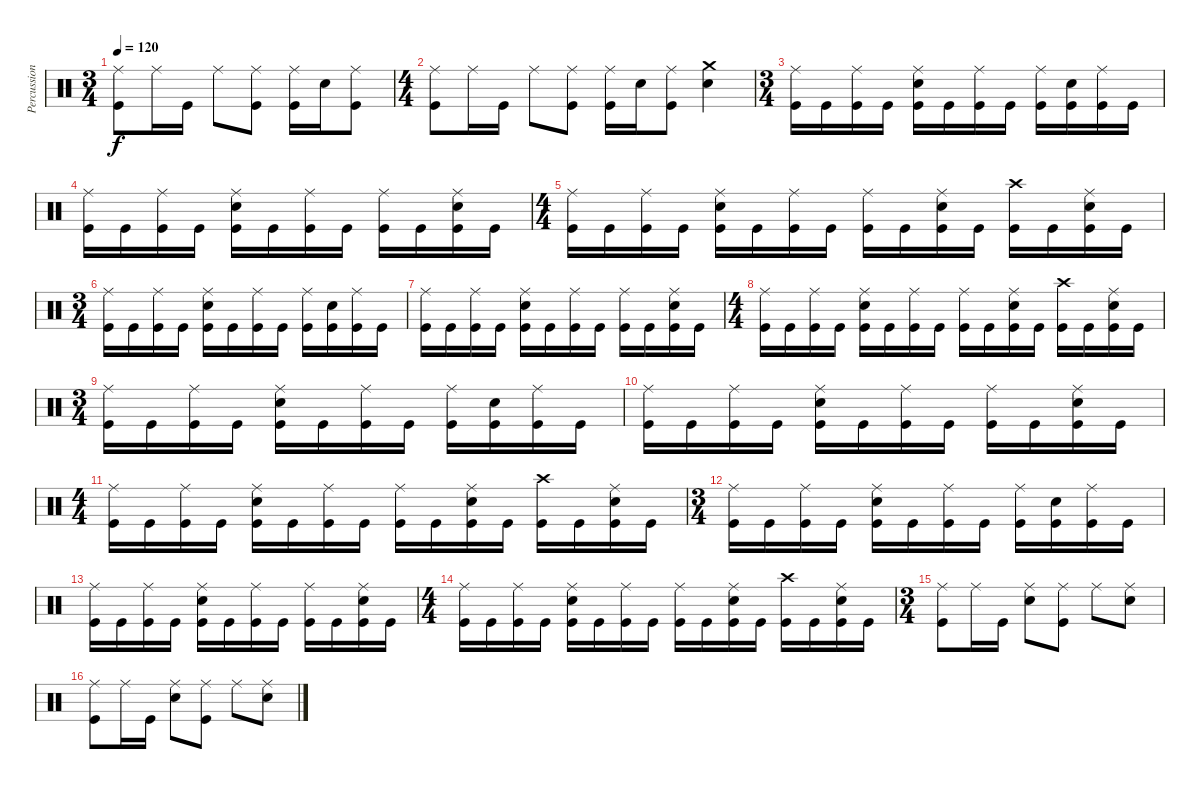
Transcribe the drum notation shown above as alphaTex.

\track ("Percussion" "Percussion") {instrument percussion}
\staff {score}
\articulation defaults
\ts (3 4)
\tempo 120
\clef neutral
\ks c
("Ride (middle)" "Kick (hit)").8{dy f} "Ride (middle)".16 "Kick (hit)".16 "Ride (middle)".8 ("Ride (middle)" "Kick (hit)").8 ("Ride (middle)" "Kick (hit)").16 "Snare (hit) 2".16 ("Ride (middle)" "Kick (hit)").8 |
\ts (4 4)
("Ride (middle)" "Kick (hit)").8 "Ride (middle)".16 "Kick (hit)".16 "Ride (middle)".8 ("Ride (middle)" "Kick (hit)").8 ("Ride (middle)" "Kick (hit)").16 "Snare (hit) 2".16 ("Ride (middle)" "Kick (hit)").8 ("Crash medium (hit)" "Snare (hit) 2").4 |
\ts (3 4)
("Ride (middle)" "Kick (hit)").16 "Kick (hit)".16 ("Ride (middle)" "Kick (hit)").16 "Kick (hit)".16 ("Ride (middle)" "Snare (hit) 2" "Kick (hit)").16 "Kick (hit)".16 ("Ride (middle)" "Kick (hit)").16 "Kick (hit)".16 ("Ride (middle)" "Kick (hit)").16 ("Snare (hit) 2" "Kick (hit)").16 ("Ride (middle)" "Kick (hit)").16 "Kick (hit)".16 |
("Ride (middle)" "Kick (hit)").16 "Kick (hit)".16 ("Ride (middle)" "Kick (hit)").16 "Kick (hit)".16 ("Ride (middle)" "Snare (hit) 2" "Kick (hit)").16 "Kick (hit)".16 ("Ride (middle)" "Kick (hit)").16 "Kick (hit)".16 ("Ride (middle)" "Kick (hit)").16 "Kick (hit)".16 ("Ride (middle)" "Snare (hit) 2" "Kick (hit)").16 "Kick (hit)".16 |
\ts (4 4)
("Ride (middle)" "Kick (hit)").16 "Kick (hit)".16 ("Ride (middle)" "Kick (hit)").16 "Kick (hit)".16 ("Ride (middle)" "Snare (hit) 2" "Kick (hit)").16 "Kick (hit)".16 ("Ride (middle)" "Kick (hit)").16 "Kick (hit)".16 ("Ride (middle)" "Kick (hit)").16 "Kick (hit)".16 ("Ride (middle)" "Snare (hit) 2" "Kick (hit)").16 "Kick (hit)".16 ("Crash high (hit)" "Kick (hit)").16 "Kick (hit)".16 ("Ride (middle)" "Snare (hit) 2" "Kick (hit)").16 "Kick (hit)".16 |
\ts (3 4)
("Ride (middle)" "Kick (hit)").16 "Kick (hit)".16 ("Ride (middle)" "Kick (hit)").16 "Kick (hit)".16 ("Ride (middle)" "Snare (hit) 2" "Kick (hit)").16 "Kick (hit)".16 ("Ride (middle)" "Kick (hit)").16 "Kick (hit)".16 ("Ride (middle)" "Kick (hit)").16 ("Snare (hit) 2" "Kick (hit)").16 ("Ride (middle)" "Kick (hit)").16 "Kick (hit)".16 |
("Ride (middle)" "Kick (hit)").16 "Kick (hit)".16 ("Ride (middle)" "Kick (hit)").16 "Kick (hit)".16 ("Ride (middle)" "Snare (hit) 2" "Kick (hit)").16 "Kick (hit)".16 ("Ride (middle)" "Kick (hit)").16 "Kick (hit)".16 ("Ride (middle)" "Kick (hit)").16 "Kick (hit)".16 ("Ride (middle)" "Snare (hit) 2" "Kick (hit)").16 "Kick (hit)".16 |
\ts (4 4)
("Ride (middle)" "Kick (hit)").16 "Kick (hit)".16 ("Ride (middle)" "Kick (hit)").16 "Kick (hit)".16 ("Ride (middle)" "Snare (hit) 2" "Kick (hit)").16 "Kick (hit)".16 ("Ride (middle)" "Kick (hit)").16 "Kick (hit)".16 ("Ride (middle)" "Kick (hit)").16 "Kick (hit)".16 ("Ride (middle)" "Snare (hit) 2" "Kick (hit)").16 "Kick (hit)".16 ("Crash high (hit)" "Kick (hit)").16 "Kick (hit)".16 ("Ride (middle)" "Snare (hit) 2" "Kick (hit)").16 "Kick (hit)".16 |
\ts (3 4)
("Ride (middle)" "Kick (hit)").16 "Kick (hit)".16 ("Ride (middle)" "Kick (hit)").16 "Kick (hit)".16 ("Ride (middle)" "Snare (hit) 2" "Kick (hit)").16 "Kick (hit)".16 ("Ride (middle)" "Kick (hit)").16 "Kick (hit)".16 ("Ride (middle)" "Kick (hit)").16 ("Snare (hit) 2" "Kick (hit)").16 ("Ride (middle)" "Kick (hit)").16 "Kick (hit)".16 |
("Ride (middle)" "Kick (hit)").16 "Kick (hit)".16 ("Ride (middle)" "Kick (hit)").16 "Kick (hit)".16 ("Ride (middle)" "Snare (hit) 2" "Kick (hit)").16 "Kick (hit)".16 ("Ride (middle)" "Kick (hit)").16 "Kick (hit)".16 ("Ride (middle)" "Kick (hit)").16 "Kick (hit)".16 ("Ride (middle)" "Snare (hit) 2" "Kick (hit)").16 "Kick (hit)".16 |
\ts (4 4)
("Ride (middle)" "Kick (hit)").16 "Kick (hit)".16 ("Ride (middle)" "Kick (hit)").16 "Kick (hit)".16 ("Ride (middle)" "Snare (hit) 2" "Kick (hit)").16 "Kick (hit)".16 ("Ride (middle)" "Kick (hit)").16 "Kick (hit)".16 ("Ride (middle)" "Kick (hit)").16 "Kick (hit)".16 ("Ride (middle)" "Snare (hit) 2" "Kick (hit)").16 "Kick (hit)".16 ("Crash high (hit)" "Kick (hit)").16 "Kick (hit)".16 ("Ride (middle)" "Snare (hit) 2" "Kick (hit)").16 "Kick (hit)".16 |
\ts (3 4)
("Ride (middle)" "Kick (hit)").16 "Kick (hit)".16 ("Ride (middle)" "Kick (hit)").16 "Kick (hit)".16 ("Ride (middle)" "Snare (hit) 2" "Kick (hit)").16 "Kick (hit)".16 ("Ride (middle)" "Kick (hit)").16 "Kick (hit)".16 ("Ride (middle)" "Kick (hit)").16 ("Snare (hit) 2" "Kick (hit)").16 ("Ride (middle)" "Kick (hit)").16 "Kick (hit)".16 |
("Ride (middle)" "Kick (hit)").16 "Kick (hit)".16 ("Ride (middle)" "Kick (hit)").16 "Kick (hit)".16 ("Ride (middle)" "Snare (hit) 2" "Kick (hit)").16 "Kick (hit)".16 ("Ride (middle)" "Kick (hit)").16 "Kick (hit)".16 ("Ride (middle)" "Kick (hit)").16 "Kick (hit)".16 ("Ride (middle)" "Snare (hit) 2" "Kick (hit)").16 "Kick (hit)".16 |
\ts (4 4)
("Ride (middle)" "Kick (hit)").16 "Kick (hit)".16 ("Ride (middle)" "Kick (hit)").16 "Kick (hit)".16 ("Ride (middle)" "Snare (hit) 2" "Kick (hit)").16 "Kick (hit)".16 ("Ride (middle)" "Kick (hit)").16 "Kick (hit)".16 ("Ride (middle)" "Kick (hit)").16 "Kick (hit)".16 ("Ride (middle)" "Snare (hit) 2" "Kick (hit)").16 "Kick (hit)".16 ("Crash high (hit)" "Kick (hit)").16 "Kick (hit)".16 ("Ride (middle)" "Snare (hit) 2" "Kick (hit)").16 "Kick (hit)".16 |
\ts (3 4)
("Ride (middle)" "Kick (hit)").8 "Ride (middle)".16 "Kick (hit)".16 ("Ride (middle)" "Snare (hit) 2").8 ("Ride (middle)" "Kick (hit)").8 "Ride (middle)".8 ("Ride (middle)" "Snare (hit) 2").8 |
("Ride (middle)" "Kick (hit)").8 "Ride (middle)".16 "Kick (hit)".16 ("Ride (middle)" "Snare (hit) 2").8 ("Ride (middle)" "Kick (hit)").8 "Ride (middle)".8 ("Ride (middle)" "Snare (hit) 2").8
